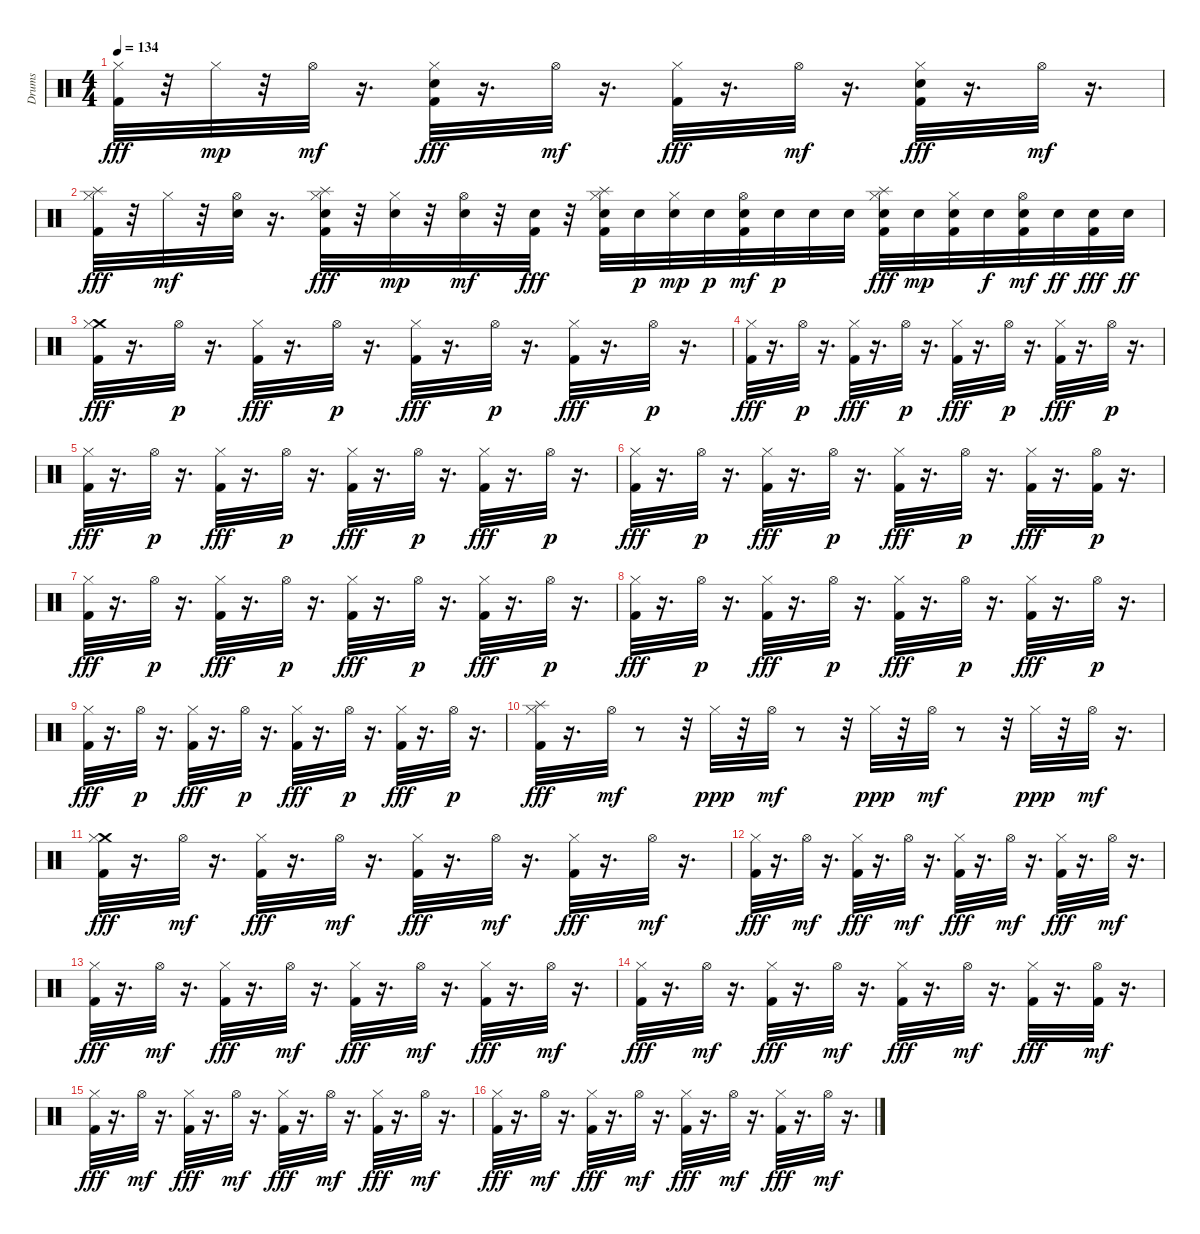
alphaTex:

\track ("Drums" "Drums") {instrument percussion}
\staff {score}
\articulation defaults
\ts (4 4)
\tempo 134
\clef neutral
\ks c
("Kick (hit) 2" "Hi-Hat (closed)").32{dy fff} r.32 "Hi-Hat (closed)".32{dy mp} r.32 "Hi-Hat (open)".32{dy mf} r.16{d} ("Electric Snare (hit)" "Kick (hit) 2" "Hi-Hat (closed)").32{dy fff} r.16{d} "Hi-Hat (open)".32{dy mf} r.16{d} ("Kick (hit) 2" "Hi-Hat (closed)").32{dy fff} r.16{d} "Hi-Hat (open)".32{dy mf} r.16{d} ("Electric Snare (hit)" "Kick (hit) 2" "Hi-Hat (closed)").32{dy fff} r.16{d} "Hi-Hat (open)".32{dy mf} r.16{d} |
("Kick (hit) 2" "Hi-Hat (closed)" "Splash (hit)").32{dy fff} r.32 "Hi-Hat (closed)".32{dy mf} r.32 ("Electric Snare (hit)" "Hi-Hat (open)").32 r.16{d} ("Electric Snare (hit)" "Kick (hit) 2" "Hi-Hat (closed)" "Splash (hit)").32{dy fff} r.32 ("Electric Snare (hit)" "Hi-Hat (closed)").32{dy mp} r.32 ("Electric Snare (hit)" "Hi-Hat (open)").32{dy mf} r.32 ("Electric Snare (hit)" "Kick (hit) 2").32{dy fff} r.32 ("Electric Snare (hit)" "Kick (hit) 2" "Hi-Hat (closed)" "Splash (hit)").32 "Electric Snare (hit)".32{dy p} ("Electric Snare (hit)" "Hi-Hat (closed)").32{dy mp} "Electric Snare (hit)".32{dy p} ("Electric Snare (hit)" "Kick (hit) 2" "Hi-Hat (open)").32{dy mf} "Electric Snare (hit)".32{dy p} "Electric Snare (hit)".32 "Electric Snare (hit)".32 ("Electric Snare (hit)" "Kick (hit) 2" "Hi-Hat (closed)" "Splash (hit)").32{dy fff} "Electric Snare (hit)".32{dy mp} ("Electric Snare (hit)" "Kick (hit) 2" "Hi-Hat (closed)").32 "Electric Snare (hit)".32{dy f} ("Electric Snare (hit)" "Kick (hit) 2" "Hi-Hat (open)").32{dy mf} "Electric Snare (hit)".32{dy ff} ("Electric Snare (hit)" "Kick (hit) 2").32{dy fff} "Electric Snare (hit)".32{dy ff} |
("Crash medium (hit)" "Kick (hit) 2" "Hi-Hat (closed)").32{dy fff} r.16{d} "Hi-Hat (open)".32{dy p} r.16{d} ("Kick (hit) 2" "Hi-Hat (closed)").32{dy fff} r.16{d} "Hi-Hat (open)".32{dy p} r.16{d} ("Kick (hit) 2" "Hi-Hat (closed)").32{dy fff} r.16{d} "Hi-Hat (open)".32{dy p} r.16{d} ("Kick (hit) 2" "Hi-Hat (closed)").32{dy fff} r.16{d} "Hi-Hat (open)".32{dy p} r.16{d} |
("Kick (hit) 2" "Hi-Hat (closed)").32{dy fff} r.16{d} "Hi-Hat (open)".32{dy p} r.16{d} ("Kick (hit) 2" "Hi-Hat (closed)").32{dy fff} r.16{d} "Hi-Hat (open)".32{dy p} r.16{d} ("Kick (hit) 2" "Hi-Hat (closed)").32{dy fff} r.16{d} "Hi-Hat (open)".32{dy p} r.16{d} ("Kick (hit) 2" "Hi-Hat (closed)").32{dy fff} r.16{d} "Hi-Hat (open)".32{dy p} r.16{d} |
("Kick (hit) 2" "Hi-Hat (closed)").32{dy fff} r.16{d} "Hi-Hat (open)".32{dy p} r.16{d} ("Kick (hit) 2" "Hi-Hat (closed)").32{dy fff} r.16{d} "Hi-Hat (open)".32{dy p} r.16{d} ("Kick (hit) 2" "Hi-Hat (closed)").32{dy fff} r.16{d} "Hi-Hat (open)".32{dy p} r.16{d} ("Kick (hit) 2" "Hi-Hat (closed)").32{dy fff} r.16{d} "Hi-Hat (open)".32{dy p} r.16{d} |
("Kick (hit) 2" "Hi-Hat (closed)").32{dy fff} r.16{d} "Hi-Hat (open)".32{dy p} r.16{d} ("Kick (hit) 2" "Hi-Hat (closed)").32{dy fff} r.16{d} "Hi-Hat (open)".32{dy p} r.16{d} ("Kick (hit) 2" "Hi-Hat (closed)").32{dy fff} r.16{d} "Hi-Hat (open)".32{dy p} r.16{d} ("Kick (hit) 2" "Hi-Hat (closed)").32{dy fff} r.16{d} ("Kick (hit) 2" "Hi-Hat (open)").32{dy p} r.16{d} |
("Kick (hit) 2" "Hi-Hat (closed)").32{dy fff} r.16{d} "Hi-Hat (open)".32{dy p} r.16{d} ("Kick (hit) 2" "Hi-Hat (closed)").32{dy fff} r.16{d} "Hi-Hat (open)".32{dy p} r.16{d} ("Kick (hit) 2" "Hi-Hat (closed)").32{dy fff} r.16{d} "Hi-Hat (open)".32{dy p} r.16{d} ("Kick (hit) 2" "Hi-Hat (closed)").32{dy fff} r.16{d} "Hi-Hat (open)".32{dy p} r.16{d} |
("Kick (hit) 2" "Hi-Hat (closed)").32{dy fff} r.16{d} "Hi-Hat (open)".32{dy p} r.16{d} ("Kick (hit) 2" "Hi-Hat (closed)").32{dy fff} r.16{d} "Hi-Hat (open)".32{dy p} r.16{d} ("Kick (hit) 2" "Hi-Hat (closed)").32{dy fff} r.16{d} "Hi-Hat (open)".32{dy p} r.16{d} ("Kick (hit) 2" "Hi-Hat (closed)").32{dy fff} r.16{d} "Hi-Hat (open)".32{dy p} r.16{d} |
("Kick (hit) 2" "Hi-Hat (closed)").32{dy fff} r.16{d} "Hi-Hat (open)".32{dy p} r.16{d} ("Kick (hit) 2" "Hi-Hat (closed)").32{dy fff} r.16{d} "Hi-Hat (open)".32{dy p} r.16{d} ("Kick (hit) 2" "Hi-Hat (closed)").32{dy fff} r.16{d} "Hi-Hat (open)".32{dy p} r.16{d} ("Kick (hit) 2" "Hi-Hat (closed)").32{dy fff} r.16{d} "Hi-Hat (open)".32{dy p} r.16{d} |
("Kick (hit) 2" "Hi-Hat (closed)" "Splash (hit)").32{dy fff} r.16{d} "Hi-Hat (open)".32{dy mf} r.8 r.32 "Hi-Hat (closed)".32{dy ppp} r.32 "Hi-Hat (open)".32{dy mf} r.8 r.32 "Hi-Hat (closed)".32{dy ppp} r.32 "Hi-Hat (open)".32{dy mf} r.8 r.32 "Hi-Hat (closed)".32{dy ppp} r.32 "Hi-Hat (open)".32{dy mf} r.16{d} |
("Crash medium (hit)" "Kick (hit) 2" "Hi-Hat (closed)").32{dy fff} r.16{d} "Hi-Hat (open)".32{dy mf} r.16{d} ("Kick (hit) 2" "Hi-Hat (closed)").32{dy fff} r.16{d} "Hi-Hat (open)".32{dy mf} r.16{d} ("Kick (hit) 2" "Hi-Hat (closed)").32{dy fff} r.16{d} "Hi-Hat (open)".32{dy mf} r.16{d} ("Kick (hit) 2" "Hi-Hat (closed)").32{dy fff} r.16{d} "Hi-Hat (open)".32{dy mf} r.16{d} |
("Kick (hit) 2" "Hi-Hat (closed)").32{dy fff} r.16{d} "Hi-Hat (open)".32{dy mf} r.16{d} ("Kick (hit) 2" "Hi-Hat (closed)").32{dy fff} r.16{d} "Hi-Hat (open)".32{dy mf} r.16{d} ("Kick (hit) 2" "Hi-Hat (closed)").32{dy fff} r.16{d} "Hi-Hat (open)".32{dy mf} r.16{d} ("Kick (hit) 2" "Hi-Hat (closed)").32{dy fff} r.16{d} "Hi-Hat (open)".32{dy mf} r.16{d} |
("Kick (hit) 2" "Hi-Hat (closed)").32{dy fff} r.16{d} "Hi-Hat (open)".32{dy mf} r.16{d} ("Kick (hit) 2" "Hi-Hat (closed)").32{dy fff} r.16{d} "Hi-Hat (open)".32{dy mf} r.16{d} ("Kick (hit) 2" "Hi-Hat (closed)").32{dy fff} r.16{d} "Hi-Hat (open)".32{dy mf} r.16{d} ("Kick (hit) 2" "Hi-Hat (closed)").32{dy fff} r.16{d} "Hi-Hat (open)".32{dy mf} r.16{d} |
("Kick (hit) 2" "Hi-Hat (closed)").32{dy fff} r.16{d} "Hi-Hat (open)".32{dy mf} r.16{d} ("Kick (hit) 2" "Hi-Hat (closed)").32{dy fff} r.16{d} "Hi-Hat (open)".32{dy mf} r.16{d} ("Kick (hit) 2" "Hi-Hat (closed)").32{dy fff} r.16{d} "Hi-Hat (open)".32{dy mf} r.16{d} ("Kick (hit) 2" "Hi-Hat (closed)").32{dy fff} r.16{d} ("Kick (hit) 2" "Hi-Hat (open)").32{dy mf} r.16{d} |
("Kick (hit) 2" "Hi-Hat (closed)").32{dy fff} r.16{d} "Hi-Hat (open)".32{dy mf} r.16{d} ("Kick (hit) 2" "Hi-Hat (closed)").32{dy fff} r.16{d} "Hi-Hat (open)".32{dy mf} r.16{d} ("Kick (hit) 2" "Hi-Hat (closed)").32{dy fff} r.16{d} "Hi-Hat (open)".32{dy mf} r.16{d} ("Kick (hit) 2" "Hi-Hat (closed)").32{dy fff} r.16{d} "Hi-Hat (open)".32{dy mf} r.16{d} |
("Kick (hit) 2" "Hi-Hat (closed)").32{dy fff} r.16{d} "Hi-Hat (open)".32{dy mf} r.16{d} ("Kick (hit) 2" "Hi-Hat (closed)").32{dy fff} r.16{d} "Hi-Hat (open)".32{dy mf} r.16{d} ("Kick (hit) 2" "Hi-Hat (closed)").32{dy fff} r.16{d} "Hi-Hat (open)".32{dy mf} r.16{d} ("Kick (hit) 2" "Hi-Hat (closed)").32{dy fff} r.16{d} "Hi-Hat (open)".32{dy mf} r.16{d}
